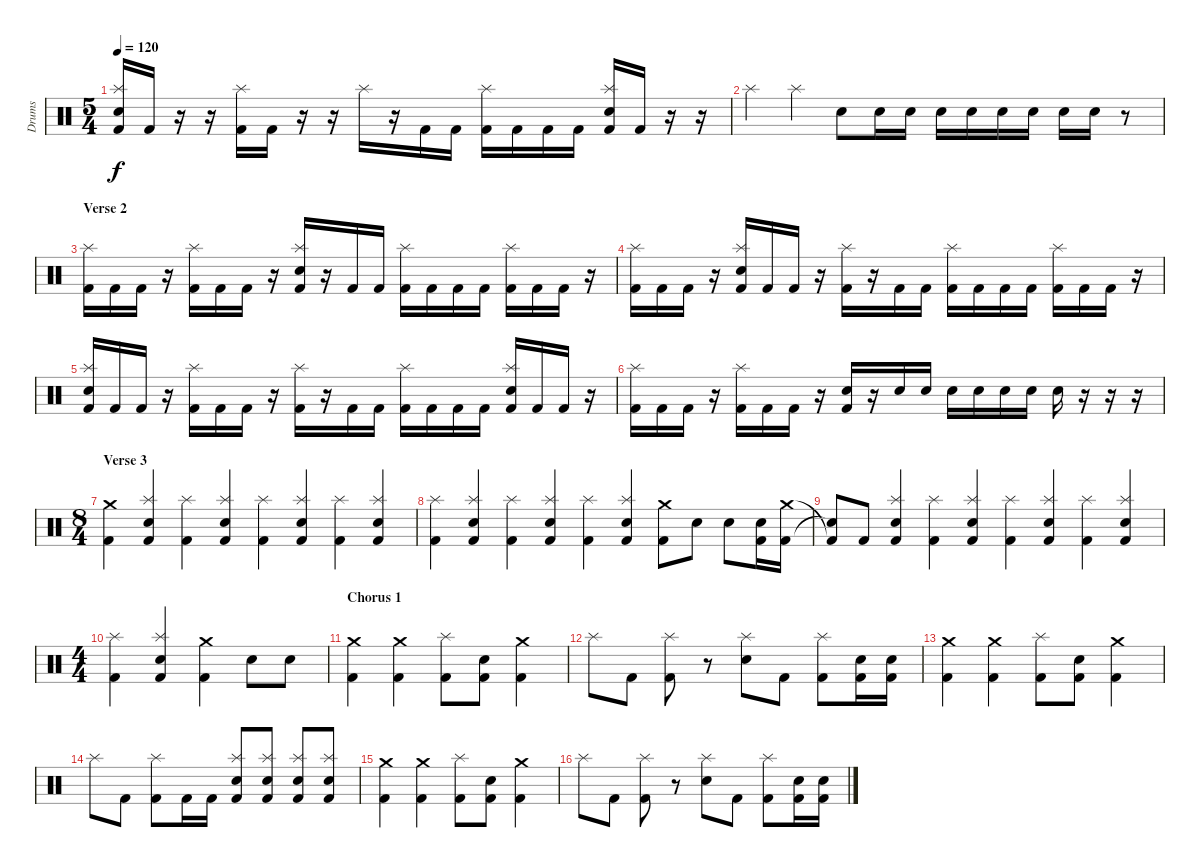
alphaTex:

\track ("Drums" "Drums") {instrument percussion}
\staff {score}
\articulation defaults
\ts (5 4)
\tempo 120
\clef neutral
\ks c
("Kick (hit) 2" "Splash (hit)" "Snare (hit) 2").16{dy f} "Kick (hit) 2".16 r.16 r.16 ("Kick (hit) 2" "Splash (hit)").16 "Kick (hit) 2".16 r.16 r.16 "Splash (hit)".16 r.16 "Kick (hit) 2".16 "Kick (hit) 2".16 ("Kick (hit) 2" "Splash (hit)").16 "Kick (hit) 2".16 "Kick (hit) 2".16 "Kick (hit) 2".16 ("Kick (hit) 2" "Splash (hit)" "Snare (hit) 2").16 "Kick (hit) 2".16 r.16 r.16 |
"Splash (hit)".4 "Splash (hit)".4 "Snare (hit) 2".8 "Snare (hit) 2".16 "Snare (hit) 2".16 "Snare (hit) 2".16 "Snare (hit) 2".16 "Snare (hit) 2".16 "Snare (hit) 2".16 "Snare (hit) 2".16 "Snare (hit) 2".16 r.8 |
\section ("" "Verse 2")
("Kick (hit) 2" "Splash (hit)").16 "Kick (hit) 2".16 "Kick (hit) 2".16 r.16 ("Kick (hit) 2" "Splash (hit)").16 "Kick (hit) 2".16 "Kick (hit) 2".16 r.16 ("Kick (hit) 2" "Splash (hit)" "Snare (hit) 2").16 r.16 "Kick (hit) 2".16 "Kick (hit) 2".16 ("Kick (hit) 2" "Splash (hit)").16 "Kick (hit) 2".16 "Kick (hit) 2".16 "Kick (hit) 2".16 ("Kick (hit) 2" "Splash (hit)").16 "Kick (hit) 2".16 "Kick (hit) 2".16 r.16 |
("Kick (hit) 2" "Splash (hit)").16 "Kick (hit) 2".16 "Kick (hit) 2".16 r.16 ("Kick (hit) 2" "Splash (hit)" "Snare (hit) 2").16 "Kick (hit) 2".16 "Kick (hit) 2".16 r.16 ("Kick (hit) 2" "Splash (hit)").16 r.16 "Kick (hit) 2".16 "Kick (hit) 2".16 ("Kick (hit) 2" "Splash (hit)").16 "Kick (hit) 2".16 "Kick (hit) 2".16 "Kick (hit) 2".16 ("Kick (hit) 2" "Splash (hit)").16 "Kick (hit) 2".16 "Kick (hit) 2".16 r.16 |
("Kick (hit) 2" "Splash (hit)" "Snare (hit) 2").16 "Kick (hit) 2".16 "Kick (hit) 2".16 r.16 ("Kick (hit) 2" "Splash (hit)").16 "Kick (hit) 2".16 "Kick (hit) 2".16 r.16 ("Kick (hit) 2" "Splash (hit)").16 r.16 "Kick (hit) 2".16 "Kick (hit) 2".16 ("Kick (hit) 2" "Splash (hit)").16 "Kick (hit) 2".16 "Kick (hit) 2".16 "Kick (hit) 2".16 ("Kick (hit) 2" "Splash (hit)" "Snare (hit) 2").16 "Kick (hit) 2".16 "Kick (hit) 2".16 r.16 |
("Kick (hit) 2" "Splash (hit)").16 "Kick (hit) 2".16 "Kick (hit) 2".16 r.16 ("Kick (hit) 2" "Splash (hit)").16 "Kick (hit) 2".16 "Kick (hit) 2".16 r.16 ("Kick (hit) 2" "Snare (hit) 2").16 r.16 "Snare (hit) 2".16 "Snare (hit) 2".16 "Snare (hit) 2".16 "Snare (hit) 2".16 "Snare (hit) 2".16 "Snare (hit) 2".16 "Snare (hit) 2".16 r.16 r.16 r.16 |
\ts (8 4)
\section ("" "Verse 3")
("Kick (hit) 2" "Crash medium (hit)").4 ("Snare (hit) 2" "Kick (hit) 2" "Splash (hit)").4 ("Kick (hit) 2" "Splash (hit)").4 ("Snare (hit) 2" "Kick (hit) 2" "Splash (hit)").4 ("Kick (hit) 2" "Splash (hit)").4 ("Snare (hit) 2" "Splash (hit)" "Kick (hit) 2").4 ("Splash (hit)" "Kick (hit) 2").4 ("Snare (hit) 2" "Splash (hit)" "Kick (hit) 2").4 |
("Splash (hit)" "Kick (hit) 2").4 ("Snare (hit) 2" "Splash (hit)" "Kick (hit) 2").4 ("Splash (hit)" "Kick (hit) 2").4 ("Snare (hit) 2" "Splash (hit)" "Kick (hit) 2").4 ("Splash (hit)" "Kick (hit) 2").4 ("Snare (hit) 2" "Splash (hit)" "Kick (hit) 2").4 ("Crash medium (hit)" "Kick (hit) 2").8 "Snare (hit) 2".8 "Snare (hit) 2".8 ("Snare (hit) 2" "Kick (hit) 2").16 ("Kick (hit) 2" "Crash medium (hit)").16 |
("Snare (hit)"{t} "Kick (hit) 2"{t}).8 "Kick (hit) 2".8 ("Snare (hit) 2" "Splash (hit)" "Kick (hit) 2").4 ("Splash (hit)" "Kick (hit) 2").4 ("Snare (hit) 2" "Kick (hit) 2" "Splash (hit)").4 ("Kick (hit) 2" "Splash (hit)").4 ("Snare (hit) 2" "Splash (hit)" "Kick (hit) 2").4 ("Splash (hit)" "Kick (hit) 2").4 ("Snare (hit) 2" "Splash (hit)" "Kick (hit) 2").4 |
\ts (4 4)
("Splash (hit)" "Kick (hit) 2").4 ("Snare (hit) 2" "Splash (hit)" "Kick (hit) 2").4 ("Crash medium (hit)" "Kick (hit) 2").4 "Snare (hit) 2".8 "Snare (hit) 2".8 |
\section ("" "Chorus 1")
("Crash medium (hit)" "Kick (hit) 2").4 ("Crash medium (hit)" "Kick (hit) 2").4 ("Splash (hit)" "Kick (hit) 2").8 ("Snare (hit) 2" "Kick (hit) 2").8 ("Crash medium (hit)" "Kick (hit) 2").4 |
"Splash (hit)".8 "Kick (hit) 2".8 ("Splash (hit)" "Kick (hit) 2").8 r.8 ("Snare (hit) 2" "Splash (hit)").8 "Kick (hit) 2".8 ("Splash (hit)" "Kick (hit) 2").8 ("Snare (hit) 2" "Kick (hit) 2").16 ("Snare (hit) 2" "Kick (hit) 2").16 |
("Crash medium (hit)" "Kick (hit) 2").4 ("Crash medium (hit)" "Kick (hit) 2").4 ("Splash (hit)" "Kick (hit) 2").8 ("Snare (hit) 2" "Kick (hit) 2").8 ("Crash medium (hit)" "Kick (hit) 2").4 |
"Splash (hit)".8 "Kick (hit) 2".8 ("Splash (hit)" "Kick (hit) 2").8 "Kick (hit) 2".16 "Kick (hit) 2".16 ("Snare (hit) 2" "Splash (hit)" "Kick (hit) 2").8 ("Snare (hit) 2" "Splash (hit)" "Kick (hit) 2").8 ("Snare (hit) 2" "Splash (hit)" "Kick (hit) 2").8 ("Snare (hit) 2" "Splash (hit)" "Kick (hit) 2").8 |
("Crash medium (hit)" "Kick (hit) 2").4 ("Crash medium (hit)" "Kick (hit) 2").4 ("Splash (hit)" "Kick (hit) 2").8 ("Snare (hit) 2" "Kick (hit) 2").8 ("Crash medium (hit)" "Kick (hit) 2").4 |
"Splash (hit)".8 "Kick (hit) 2".8 ("Splash (hit)" "Kick (hit) 2").8 r.8 ("Snare (hit) 2" "Splash (hit)").8 "Kick (hit) 2".8 ("Splash (hit)" "Kick (hit) 2").8 ("Snare (hit) 2" "Kick (hit) 2").16 ("Snare (hit) 2" "Kick (hit) 2").16
